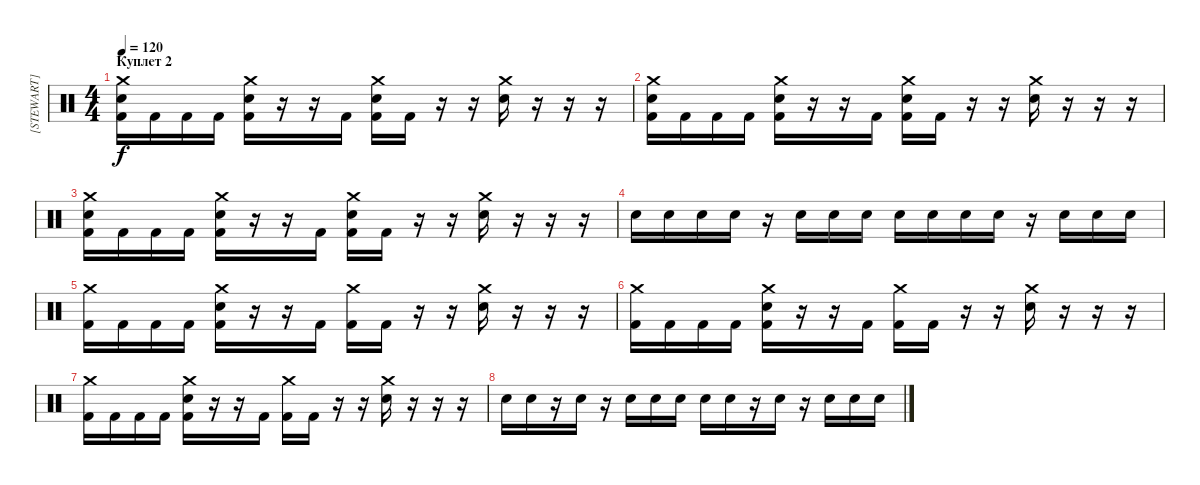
\track ("[STEWART]" "[STEWART]") {instrument percussion}
\staff {score}
\articulation defaults
\ts (4 4)
\section ("" "Куплет 2")
\tempo 120
\clef neutral
\ks c
("Crash medium (hit)" "Electric Snare (hit)" "Kick (hit) 2").16{dy f} "Kick (hit) 2".16 "Kick (hit) 2".16 "Kick (hit) 2".16 ("Crash medium (hit)" "Electric Snare (hit)" "Kick (hit) 2").16 r.16 r.16 "Kick (hit) 2".16 ("Crash medium (hit)" "Electric Snare (hit)" "Kick (hit) 2").16 "Kick (hit) 2".16 r.16 r.16 ("Crash medium (hit)" "Electric Snare (hit)").16 r.16 r.16 r.16 |
("Crash medium (hit)" "Electric Snare (hit)" "Kick (hit) 2").16 "Kick (hit) 2".16 "Kick (hit) 2".16 "Kick (hit) 2".16 ("Crash medium (hit)" "Electric Snare (hit)" "Kick (hit) 2").16 r.16 r.16 "Kick (hit) 2".16 ("Crash medium (hit)" "Electric Snare (hit)" "Kick (hit) 2").16 "Kick (hit) 2".16 r.16 r.16 ("Crash medium (hit)" "Electric Snare (hit)").16 r.16 r.16 r.16 |
("Crash medium (hit)" "Electric Snare (hit)" "Kick (hit) 2").16 "Kick (hit) 2".16 "Kick (hit) 2".16 "Kick (hit) 2".16 ("Crash medium (hit)" "Electric Snare (hit)" "Kick (hit) 2").16 r.16 r.16 "Kick (hit) 2".16 ("Crash medium (hit)" "Electric Snare (hit)" "Kick (hit) 2").16 "Kick (hit) 2".16 r.16 r.16 ("Crash medium (hit)" "Electric Snare (hit)").16 r.16 r.16 r.16 |
"Electric Snare (hit)".16 "Electric Snare (hit)".16 "Electric Snare (hit)".16 "Electric Snare (hit)".16 r.16 "Electric Snare (hit)".16 "Electric Snare (hit)".16 "Electric Snare (hit)".16 "Electric Snare (hit)".16 "Electric Snare (hit)".16 "Electric Snare (hit)".16 "Electric Snare (hit)".16 r.16 "Electric Snare (hit)".16 "Electric Snare (hit)".16 "Electric Snare (hit)".16 |
("Crash medium (hit)" "Kick (hit) 2").16 "Kick (hit) 2".16 "Kick (hit) 2".16 "Kick (hit) 2".16 ("Crash medium (hit)" "Electric Snare (hit)" "Kick (hit) 2").16 r.16 r.16 "Kick (hit) 2".16 ("Crash medium (hit)" "Kick (hit) 2").16 "Kick (hit) 2".16 r.16 r.16 ("Crash medium (hit)" "Electric Snare (hit)").16 r.16 r.16 r.16 |
("Crash medium (hit)" "Kick (hit) 2").16 "Kick (hit) 2".16 "Kick (hit) 2".16 "Kick (hit) 2".16 ("Crash medium (hit)" "Electric Snare (hit)" "Kick (hit) 2").16 r.16 r.16 "Kick (hit) 2".16 ("Crash medium (hit)" "Kick (hit) 2").16 "Kick (hit) 2".16 r.16 r.16 ("Crash medium (hit)" "Electric Snare (hit)").16 r.16 r.16 r.16 |
("Crash medium (hit)" "Kick (hit) 2").16 "Kick (hit) 2".16 "Kick (hit) 2".16 "Kick (hit) 2".16 ("Crash medium (hit)" "Electric Snare (hit)" "Kick (hit) 2").16 r.16 r.16 "Kick (hit) 2".16 ("Crash medium (hit)" "Kick (hit) 2").16 "Kick (hit) 2".16 r.16 r.16 ("Crash medium (hit)" "Electric Snare (hit)").16 r.16 r.16 r.16 |
"Electric Snare (hit)".16 "Electric Snare (hit)".16 r.16 "Electric Snare (hit)".16 r.16 "Electric Snare (hit)".16 "Electric Snare (hit)".16 "Electric Snare (hit)".16 "Electric Snare (hit)".16 "Electric Snare (hit)".16 r.16 "Electric Snare (hit)".16 r.16 "Electric Snare (hit)".16 "Electric Snare (hit)".16 "Electric Snare (hit)".16
